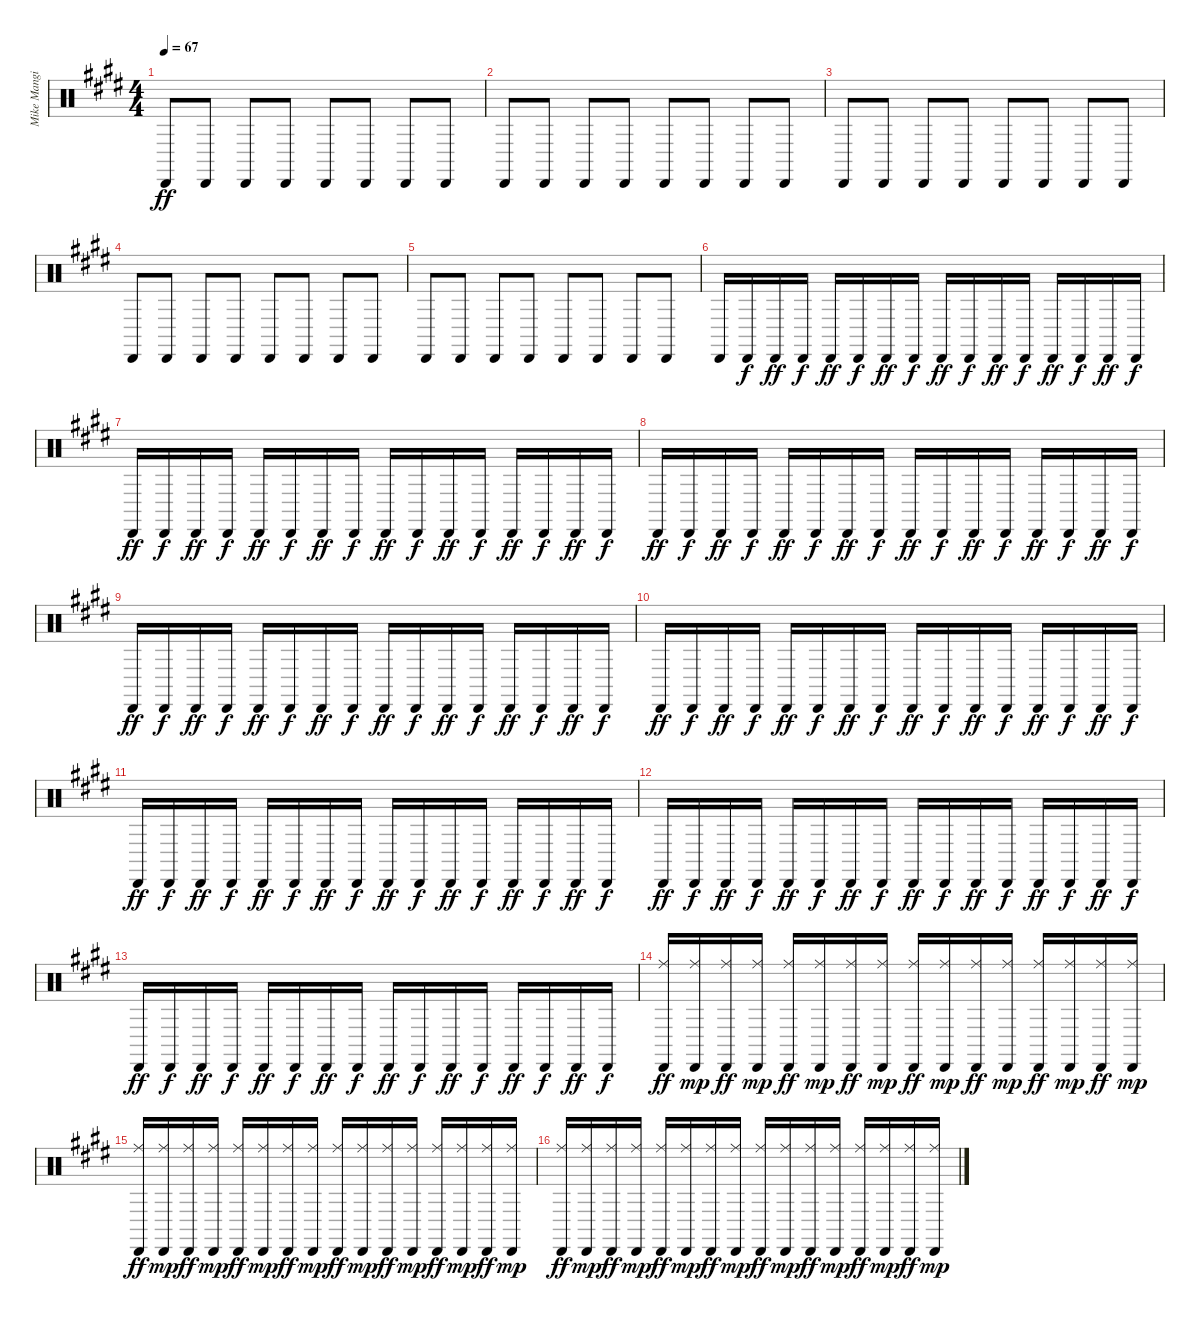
\track ("Mike Mangini - Percussion" "Mike Mangi") {instrument percussion}
\staff {score}
\articulation defaults
\ts (4 4)
\tempo 67
\clef neutral
\ks e "Cabasa (hit)".8{dy ff} "Cabasa (hit)".8 "Cabasa (hit)".8 "Cabasa (hit)".8 "Cabasa (hit)".8 "Cabasa (hit)".8 "Cabasa (hit)".8 "Cabasa (hit)".8
|
"Cabasa (hit)".8 "Cabasa (hit)".8 "Cabasa (hit)".8 "Cabasa (hit)".8 "Cabasa (hit)".8 "Cabasa (hit)".8 "Cabasa (hit)".8 "Cabasa (hit)".8 |
"Cabasa (hit)".8 "Cabasa (hit)".8 "Cabasa (hit)".8 "Cabasa (hit)".8 "Cabasa (hit)".8 "Cabasa (hit)".8 "Cabasa (hit)".8 "Cabasa (hit)".8 |
"Cabasa (hit)".8 "Cabasa (hit)".8 "Cabasa (hit)".8 "Cabasa (hit)".8 "Cabasa (hit)".8 "Cabasa (hit)".8 "Cabasa (hit)".8 "Cabasa (hit)".8 |
"Cabasa (hit)".8 "Cabasa (hit)".8 "Cabasa (hit)".8 "Cabasa (hit)".8 "Cabasa (hit)".8 "Cabasa (hit)".8 "Cabasa (hit)".8 "Cabasa (hit)".8 |
"Cabasa (hit)".16 "Cabasa (hit)".16{dy f} "Cabasa (hit)".16{dy ff} "Cabasa (hit)".16{dy f} "Cabasa (hit)".16{dy ff} "Cabasa (hit)".16{dy f} "Cabasa (hit)".16{dy ff} "Cabasa (hit)".16{dy f} "Cabasa (hit)".16{dy ff} "Cabasa (hit)".16{dy f} "Cabasa (hit)".16{dy ff} "Cabasa (hit)".16{dy f} "Cabasa (hit)".16{dy ff} "Cabasa (hit)".16{dy f} "Cabasa (hit)".16{dy ff} "Cabasa (hit)".16{dy f} |
"Cabasa (hit)".16{dy ff} "Cabasa (hit)".16{dy f} "Cabasa (hit)".16{dy ff} "Cabasa (hit)".16{dy f} "Cabasa (hit)".16{dy ff} "Cabasa (hit)".16{dy f} "Cabasa (hit)".16{dy ff} "Cabasa (hit)".16{dy f} "Cabasa (hit)".16{dy ff} "Cabasa (hit)".16{dy f} "Cabasa (hit)".16{dy ff} "Cabasa (hit)".16{dy f} "Cabasa (hit)".16{dy ff} "Cabasa (hit)".16{dy f} "Cabasa (hit)".16{dy ff} "Cabasa (hit)".16{dy f} |
"Cabasa (hit)".16{dy ff} "Cabasa (hit)".16{dy f} "Cabasa (hit)".16{dy ff} "Cabasa (hit)".16{dy f} "Cabasa (hit)".16{dy ff} "Cabasa (hit)".16{dy f} "Cabasa (hit)".16{dy ff} "Cabasa (hit)".16{dy f} "Cabasa (hit)".16{dy ff} "Cabasa (hit)".16{dy f} "Cabasa (hit)".16{dy ff} "Cabasa (hit)".16{dy f} "Cabasa (hit)".16{dy ff} "Cabasa (hit)".16{dy f} "Cabasa (hit)".16{dy ff} "Cabasa (hit)".16{dy f} |
"Cabasa (hit)".16{dy ff} "Cabasa (hit)".16{dy f} "Cabasa (hit)".16{dy ff} "Cabasa (hit)".16{dy f} "Cabasa (hit)".16{dy ff} "Cabasa (hit)".16{dy f} "Cabasa (hit)".16{dy ff} "Cabasa (hit)".16{dy f} "Cabasa (hit)".16{dy ff} "Cabasa (hit)".16{dy f} "Cabasa (hit)".16{dy ff} "Cabasa (hit)".16{dy f} "Cabasa (hit)".16{dy ff} "Cabasa (hit)".16{dy f} "Cabasa (hit)".16{dy ff} "Cabasa (hit)".16{dy f} |
"Cabasa (hit)".16{dy ff} "Cabasa (hit)".16{dy f} "Cabasa (hit)".16{dy ff} "Cabasa (hit)".16{dy f} "Cabasa (hit)".16{dy ff} "Cabasa (hit)".16{dy f} "Cabasa (hit)".16{dy ff} "Cabasa (hit)".16{dy f} "Cabasa (hit)".16{dy ff} "Cabasa (hit)".16{dy f} "Cabasa (hit)".16{dy ff} "Cabasa (hit)".16{dy f} "Cabasa (hit)".16{dy ff} "Cabasa (hit)".16{dy f} "Cabasa (hit)".16{dy ff} "Cabasa (hit)".16{dy f} |
"Cabasa (hit)".16{dy ff} "Cabasa (hit)".16{dy f} "Cabasa (hit)".16{dy ff} "Cabasa (hit)".16{dy f} "Cabasa (hit)".16{dy ff} "Cabasa (hit)".16{dy f} "Cabasa (hit)".16{dy ff} "Cabasa (hit)".16{dy f} "Cabasa (hit)".16{dy ff} "Cabasa (hit)".16{dy f} "Cabasa (hit)".16{dy ff} "Cabasa (hit)".16{dy f} "Cabasa (hit)".16{dy ff} "Cabasa (hit)".16{dy f} "Cabasa (hit)".16{dy ff} "Cabasa (hit)".16{dy f} |
"Cabasa (hit)".16{dy ff} "Cabasa (hit)".16{dy f} "Cabasa (hit)".16{dy ff} "Cabasa (hit)".16{dy f} "Cabasa (hit)".16{dy ff} "Cabasa (hit)".16{dy f} "Cabasa (hit)".16{dy ff} "Cabasa (hit)".16{dy f} "Cabasa (hit)".16{dy ff} "Cabasa (hit)".16{dy f} "Cabasa (hit)".16{dy ff} "Cabasa (hit)".16{dy f} "Cabasa (hit)".16{dy ff} "Cabasa (hit)".16{dy f} "Cabasa (hit)".16{dy ff} "Cabasa (hit)".16{dy f} |
"Cabasa (hit)".16{dy ff} "Cabasa (hit)".16{dy f} "Cabasa (hit)".16{dy ff} "Cabasa (hit)".16{dy f} "Cabasa (hit)".16{dy ff} "Cabasa (hit)".16{dy f} "Cabasa (hit)".16{dy ff} "Cabasa (hit)".16{dy f} "Cabasa (hit)".16{dy ff} "Cabasa (hit)".16{dy f} "Cabasa (hit)".16{dy ff} "Cabasa (hit)".16{dy f} "Cabasa (hit)".16{dy ff} "Cabasa (hit)".16{dy f} "Cabasa (hit)".16{dy ff} "Cabasa (hit)".16{dy f} |
("Ride (middle)" "Cabasa (hit)").16{dy ff} ("Ride (middle)" "Cabasa (hit)").16{dy mp} ("Ride (middle)" "Cabasa (hit)").16{dy ff} ("Ride (middle)" "Cabasa (hit)").16{dy mp} ("Ride (middle)" "Cabasa (hit)").16{dy ff} ("Ride (middle)" "Cabasa (hit)").16{dy mp} ("Ride (middle)" "Cabasa (hit)").16{dy ff} ("Ride (middle)" "Cabasa (hit)").16{dy mp} ("Ride (middle)" "Cabasa (hit)").16{dy ff} ("Ride (middle)" "Cabasa (hit)").16{dy mp} ("Ride (middle)" "Cabasa (hit)").16{dy ff} ("Ride (middle)" "Cabasa (hit)").16{dy mp} ("Ride (middle)" "Cabasa (hit)").16{dy ff} ("Ride (middle)" "Cabasa (hit)").16{dy mp} ("Ride (middle)" "Cabasa (hit)").16{dy ff} ("Ride (middle)" "Cabasa (hit)").16{dy mp} |
("Ride (middle)" "Cabasa (hit)").16{dy ff} ("Ride (middle)" "Cabasa (hit)").16{dy mp} ("Ride (middle)" "Cabasa (hit)").16{dy ff} ("Ride (middle)" "Cabasa (hit)").16{dy mp} ("Ride (middle)" "Cabasa (hit)").16{dy ff} ("Ride (middle)" "Cabasa (hit)").16{dy mp} ("Ride (middle)" "Cabasa (hit)").16{dy ff} ("Ride (middle)" "Cabasa (hit)").16{dy mp} ("Ride (middle)" "Cabasa (hit)").16{dy ff} ("Ride (middle)" "Cabasa (hit)").16{dy mp} ("Ride (middle)" "Cabasa (hit)").16{dy ff} ("Ride (middle)" "Cabasa (hit)").16{dy mp} ("Ride (middle)" "Cabasa (hit)").16{dy ff} ("Ride (middle)" "Cabasa (hit)").16{dy mp} ("Ride (middle)" "Cabasa (hit)").16{dy ff} ("Ride (middle)" "Cabasa (hit)").16{dy mp} |
("Ride (middle)" "Cabasa (hit)").16{dy ff} ("Ride (middle)" "Cabasa (hit)").16{dy mp} ("Ride (middle)" "Cabasa (hit)").16{dy ff} ("Ride (middle)" "Cabasa (hit)").16{dy mp} ("Ride (middle)" "Cabasa (hit)").16{dy ff} ("Ride (middle)" "Cabasa (hit)").16{dy mp} ("Ride (middle)" "Cabasa (hit)").16{dy ff} ("Ride (middle)" "Cabasa (hit)").16{dy mp} ("Ride (middle)" "Cabasa (hit)").16{dy ff} ("Ride (middle)" "Cabasa (hit)").16{dy mp} ("Ride (middle)" "Cabasa (hit)").16{dy ff} ("Ride (middle)" "Cabasa (hit)").16{dy mp} ("Ride (middle)" "Cabasa (hit)").16{dy ff} ("Ride (middle)" "Cabasa (hit)").16{dy mp} ("Ride (middle)" "Cabasa (hit)").16{dy ff} ("Ride (middle)" "Cabasa (hit)").16{dy mp}
